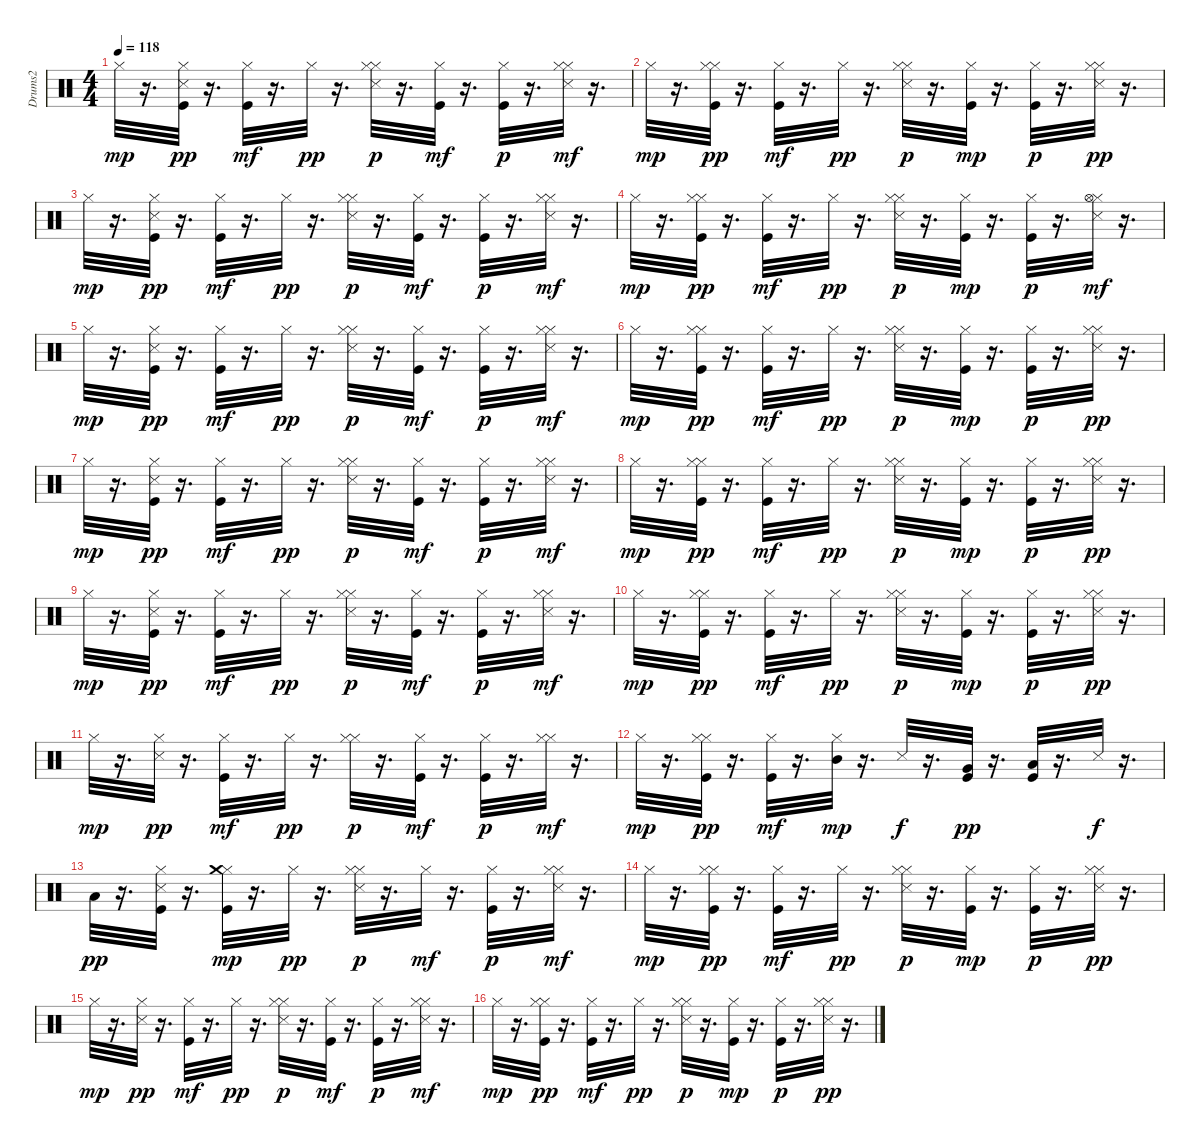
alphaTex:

\track ("Drums2" "Drums2") {instrument percussion}
\staff {score}
\articulation defaults
\ts (4 4)
\tempo 118
\clef neutral
\ks c "Hi-Hat (closed)".32{dy mp}
r.16{d} ("Kick (hit)" "Snare (side stick) 3" "Hi-Hat (closed)").32{dy pp} r.16{d} ("Kick (hit)" "Hi-Hat (closed)").32{dy mf} r.16{d} "Hi-Hat (closed)".32{dy pp} r.16{d} ("Hi-Hat (closed)" "Snare (side stick) 3" "Hi-Hat (closed)").32{dy p} r.16{d} ("Kick (hit)" "Hi-Hat (closed)").32{dy mf} r.16{d} ("Kick (hit)" "Hi-Hat (closed)").32{dy p} r.16{d} ("Hi-Hat (closed)" "Snare (side stick) 3" "Hi-Hat (closed)").32{dy mf} r.16{d} |
"Hi-Hat (closed)".32{dy mp} r.16{d} ("Hi-Hat (closed)" "Kick (hit)" "Hi-Hat (closed)").32{dy pp} r.16{d} ("Kick (hit)" "Hi-Hat (closed)").32{dy mf} r.16{d} "Hi-Hat (closed)".32{dy pp} r.16{d} ("Hi-Hat (closed)" "Snare (side stick) 3" "Hi-Hat (closed)").32{dy p} r.16{d} ("Kick (hit)" "Hi-Hat (closed)").32{dy mp} r.16{d} ("Kick (hit)" "Hi-Hat (closed)").32{dy p} r.16{d} ("Hi-Hat (closed)" "Snare (side stick) 3" "Hi-Hat (closed)").32{dy pp} r.16{d} |
"Hi-Hat (closed)".32{dy mp} r.16{d} ("Kick (hit)" "Snare (side stick) 3" "Hi-Hat (closed)").32{dy pp} r.16{d} ("Kick (hit)" "Hi-Hat (closed)").32{dy mf} r.16{d} "Hi-Hat (closed)".32{dy pp} r.16{d} ("Hi-Hat (closed)" "Snare (side stick) 3" "Hi-Hat (closed)").32{dy p} r.16{d} ("Kick (hit)" "Hi-Hat (closed)").32{dy mf} r.16{d} ("Kick (hit)" "Hi-Hat (closed)").32{dy p} r.16{d} ("Hi-Hat (closed)" "Snare (side stick) 3" "Hi-Hat (closed)").32{dy mf} r.16{d} |
"Hi-Hat (closed)".32{dy mp} r.16{d} ("Hi-Hat (closed)" "Kick (hit)" "Hi-Hat (closed)").32{dy pp} r.16{d} ("Kick (hit)" "Hi-Hat (closed)").32{dy mf} r.16{d} "Hi-Hat (closed)".32{dy pp} r.16{d} ("Hi-Hat (closed)" "Snare (side stick) 3" "Hi-Hat (closed)").32{dy p} r.16{d} ("Kick (hit)" "Hi-Hat (closed)").32{dy mp} r.16{d} ("Kick (hit)" "Hi-Hat (closed)").32{dy p} r.16{d} ("Hi-Hat (closed)" "Snare (side stick) 3" "Hi-Hat (open)").32{dy mf} r.16{d} |
"Hi-Hat (closed)".32{dy mp} r.16{d} ("Kick (hit)" "Snare (side stick) 3" "Hi-Hat (closed)").32{dy pp} r.16{d} ("Kick (hit)" "Hi-Hat (closed)").32{dy mf} r.16{d} "Hi-Hat (closed)".32{dy pp} r.16{d} ("Hi-Hat (closed)" "Snare (side stick) 3" "Hi-Hat (closed)").32{dy p} r.16{d} ("Kick (hit)" "Hi-Hat (closed)").32{dy mf} r.16{d} ("Kick (hit)" "Hi-Hat (closed)").32{dy p} r.16{d} ("Hi-Hat (closed)" "Snare (side stick) 3" "Hi-Hat (closed)").32{dy mf} r.16{d} |
"Hi-Hat (closed)".32{dy mp} r.16{d} ("Hi-Hat (closed)" "Kick (hit)" "Hi-Hat (closed)").32{dy pp} r.16{d} ("Kick (hit)" "Hi-Hat (closed)").32{dy mf} r.16{d} "Hi-Hat (closed)".32{dy pp} r.16{d} ("Hi-Hat (closed)" "Snare (side stick) 3" "Hi-Hat (closed)").32{dy p} r.16{d} ("Kick (hit)" "Hi-Hat (closed)").32{dy mp} r.16{d} ("Kick (hit)" "Hi-Hat (closed)").32{dy p} r.16{d} ("Hi-Hat (closed)" "Snare (side stick) 3" "Hi-Hat (closed)").32{dy pp} r.16{d} |
"Hi-Hat (closed)".32{dy mp} r.16{d} ("Kick (hit)" "Snare (side stick) 3" "Hi-Hat (closed)").32{dy pp} r.16{d} ("Kick (hit)" "Hi-Hat (closed)").32{dy mf} r.16{d} "Hi-Hat (closed)".32{dy pp} r.16{d} ("Hi-Hat (closed)" "Snare (side stick) 3" "Hi-Hat (closed)").32{dy p} r.16{d} ("Kick (hit)" "Hi-Hat (closed)").32{dy mf} r.16{d} ("Kick (hit)" "Hi-Hat (closed)").32{dy p} r.16{d} ("Hi-Hat (closed)" "Snare (side stick) 3" "Hi-Hat (closed)").32{dy mf} r.16{d} |
"Hi-Hat (closed)".32{dy mp} r.16{d} ("Hi-Hat (closed)" "Kick (hit)" "Hi-Hat (closed)").32{dy pp} r.16{d} ("Kick (hit)" "Hi-Hat (closed)").32{dy mf} r.16{d} "Hi-Hat (closed)".32{dy pp} r.16{d} ("Hi-Hat (closed)" "Snare (side stick) 3" "Hi-Hat (closed)").32{dy p} r.16{d} ("Kick (hit)" "Hi-Hat (closed)").32{dy mp} r.16{d} ("Kick (hit)" "Hi-Hat (closed)").32{dy p} r.16{d} ("Hi-Hat (closed)" "Snare (side stick) 3" "Hi-Hat (closed)").32{dy pp} r.16{d} |
"Hi-Hat (closed)".32{dy mp} r.16{d} ("Kick (hit)" "Snare (side stick) 3" "Hi-Hat (closed)").32{dy pp} r.16{d} ("Kick (hit)" "Hi-Hat (closed)").32{dy mf} r.16{d} "Hi-Hat (closed)".32{dy pp} r.16{d} ("Hi-Hat (closed)" "Snare (side stick) 3" "Hi-Hat (closed)").32{dy p} r.16{d} ("Kick (hit)" "Hi-Hat (closed)").32{dy mf} r.16{d} ("Kick (hit)" "Hi-Hat (closed)").32{dy p} r.16{d} ("Hi-Hat (closed)" "Snare (side stick) 3" "Hi-Hat (closed)").32{dy mf} r.16{d} |
"Hi-Hat (closed)".32{dy mp} r.16{d} ("Hi-Hat (closed)" "Kick (hit)" "Hi-Hat (closed)").32{dy pp} r.16{d} ("Kick (hit)" "Hi-Hat (closed)").32{dy mf} r.16{d} "Hi-Hat (closed)".32{dy pp} r.16{d} ("Hi-Hat (closed)" "Snare (side stick) 3" "Hi-Hat (closed)").32{dy p} r.16{d} ("Kick (hit)" "Hi-Hat (closed)").32{dy mp} r.16{d} ("Kick (hit)" "Hi-Hat (closed)").32{dy p} r.16{d} ("Hi-Hat (closed)" "Snare (side stick) 3" "Hi-Hat (closed)").32{dy pp} r.16{d} |
"Hi-Hat (closed)".32{dy mp} r.16{d} ("Snare (side stick) 3" "Hi-Hat (closed)").32{dy pp} r.16{d} ("Kick (hit)" "Hi-Hat (closed)").32{dy mf} r.16{d} "Hi-Hat (closed)".32{dy pp} r.16{d} ("Hi-Hat (closed)" "Hi-Hat (closed)").32{dy p} r.16{d} ("Kick (hit)" "Hi-Hat (closed)").32{dy mf} r.16{d} ("Kick (hit)" "Hi-Hat (closed)").32{dy p} r.16{d} ("Hi-Hat (closed)" "Hi-Hat (closed)").32{dy mf} r.16{d} |
"Hi-Hat (closed)".32{dy mp} r.16{d} ("Hi-Hat (closed)" "Kick (hit)" "Hi-Hat (closed)").32{dy pp} r.16{d} ("Kick (hit)" "Hi-Hat (closed)").32{dy mf} r.16{d} ("Hi-Hat (closed)" "Mid Tom (hit)").32{dy mp} r.16{d} "Snare (side stick) 3".32{dy f} r.16{d} ("Kick (hit)" "Very Low Tom (hit)").32{dy pp} r.16{d} ("Kick (hit)" "Low Floor Tom (hit)").32 r.16{d} "Snare (side stick) 3".32{dy f} r.16{d} |
"Low Floor Tom (hit)".32{dy pp} r.16{d} ("Kick (hit)" "Snare (side stick) 3" "Hi-Hat (closed)").32 r.16{d} ("Kick (hit)" "Hi-Hat (closed)" "Crash medium (hit)").32{dy mp} r.16{d} "Hi-Hat (closed)".32{dy pp} r.16{d} ("Hi-Hat (closed)" "Snare (side stick) 3" "Hi-Hat (closed)").32{dy p} r.16{d} "Hi-Hat (closed)".32{dy mf} r.16{d} ("Kick (hit)" "Hi-Hat (closed)").32{dy p} r.16{d} ("Hi-Hat (closed)" "Snare (side stick) 3" "Hi-Hat (closed)").32{dy mf} r.16{d} |
"Hi-Hat (closed)".32{dy mp} r.16{d} ("Hi-Hat (closed)" "Kick (hit)" "Hi-Hat (closed)").32{dy pp} r.16{d} ("Kick (hit)" "Hi-Hat (closed)").32{dy mf} r.16{d} "Hi-Hat (closed)".32{dy pp} r.16{d} ("Hi-Hat (closed)" "Snare (side stick) 3" "Hi-Hat (closed)").32{dy p} r.16{d} ("Kick (hit)" "Hi-Hat (closed)").32{dy mp} r.16{d} ("Kick (hit)" "Hi-Hat (closed)").32{dy p} r.16{d} ("Hi-Hat (closed)" "Snare (side stick) 3" "Hi-Hat (closed)").32{dy pp} r.16{d} |
"Hi-Hat (closed)".32{dy mp} r.16{d} ("Snare (side stick) 3" "Hi-Hat (closed)").32{dy pp} r.16{d} ("Kick (hit)" "Hi-Hat (closed)").32{dy mf} r.16{d} "Hi-Hat (closed)".32{dy pp} r.16{d} ("Hi-Hat (closed)" "Snare (side stick) 3" "Hi-Hat (closed)").32{dy p} r.16{d} ("Kick (hit)" "Hi-Hat (closed)").32{dy mf} r.16{d} ("Kick (hit)" "Hi-Hat (closed)").32{dy p} r.16{d} ("Hi-Hat (closed)" "Snare (side stick) 3" "Hi-Hat (closed)").32{dy mf} r.16{d} |
"Hi-Hat (closed)".32{dy mp} r.16{d} ("Hi-Hat (closed)" "Kick (hit)" "Hi-Hat (closed)").32{dy pp} r.16{d} ("Kick (hit)" "Hi-Hat (closed)").32{dy mf} r.16{d} "Hi-Hat (closed)".32{dy pp} r.16{d} ("Hi-Hat (closed)" "Snare (side stick) 3" "Hi-Hat (closed)").32{dy p} r.16{d} ("Kick (hit)" "Hi-Hat (closed)").32{dy mp} r.16{d} ("Kick (hit)" "Hi-Hat (closed)").32{dy p} r.16{d} ("Hi-Hat (closed)" "Snare (side stick) 3" "Hi-Hat (closed)").32{dy pp} r.16{d}
